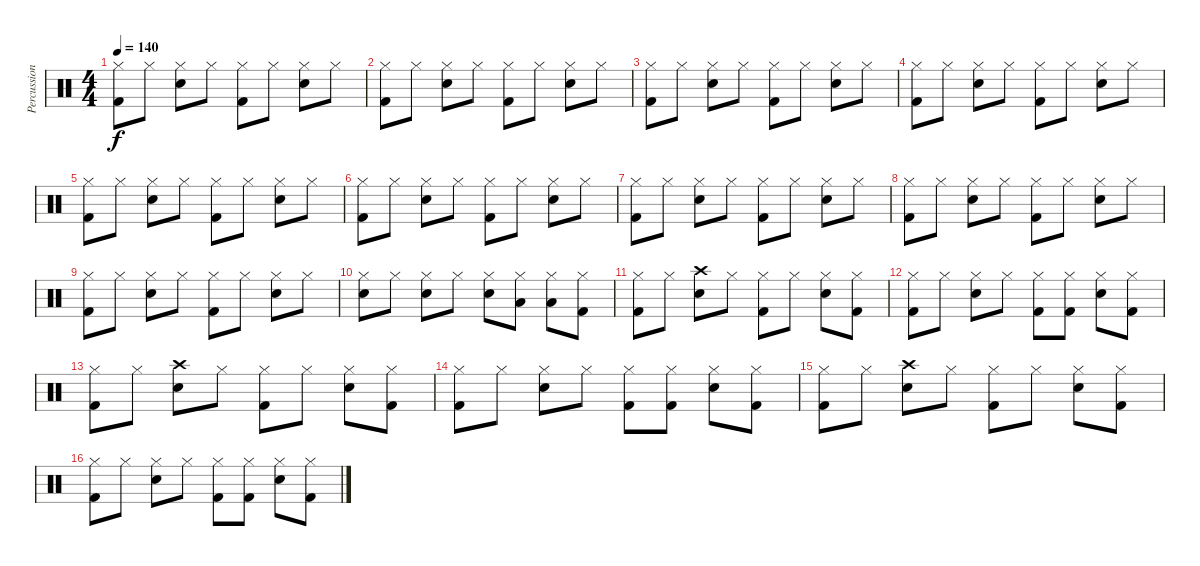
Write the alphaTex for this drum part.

\track ("Percussion" "Percussion") {instrument percussion}
\staff {score}
\articulation defaults
\ts (4 4)
\tempo 140
\clef neutral
\ks c
("Hi-Hat (closed)" "Kick (hit) 2").8{dy f} "Hi-Hat (closed)".8 ("Hi-Hat (closed)" "Snare (hit) 2").8 "Hi-Hat (closed)".8 ("Hi-Hat (closed)" "Kick (hit) 2").8 "Hi-Hat (closed)".8 ("Hi-Hat (closed)" "Snare (hit) 2").8 "Hi-Hat (closed)".8 |
("Hi-Hat (closed)" "Kick (hit) 2").8 "Hi-Hat (closed)".8 ("Hi-Hat (closed)" "Snare (hit) 2").8 "Hi-Hat (closed)".8 ("Hi-Hat (closed)" "Kick (hit) 2").8 "Hi-Hat (closed)".8 ("Hi-Hat (closed)" "Snare (hit) 2").8 "Hi-Hat (closed)".8 |
("Hi-Hat (closed)" "Kick (hit) 2").8 "Hi-Hat (closed)".8 ("Hi-Hat (closed)" "Snare (hit) 2").8 "Hi-Hat (closed)".8 ("Hi-Hat (closed)" "Kick (hit) 2").8 "Hi-Hat (closed)".8 ("Hi-Hat (closed)" "Snare (hit) 2").8 "Hi-Hat (closed)".8 |
("Hi-Hat (closed)" "Kick (hit) 2").8 "Hi-Hat (closed)".8 ("Hi-Hat (closed)" "Snare (hit) 2").8 "Hi-Hat (closed)".8 ("Hi-Hat (closed)" "Kick (hit) 2").8 "Hi-Hat (closed)".8 ("Hi-Hat (closed)" "Snare (hit) 2").8 "Hi-Hat (closed)".8 |
("Hi-Hat (closed)" "Kick (hit) 2").8 "Hi-Hat (closed)".8 ("Hi-Hat (closed)" "Snare (hit) 2").8 "Hi-Hat (closed)".8 ("Hi-Hat (closed)" "Kick (hit) 2").8 "Hi-Hat (closed)".8 ("Hi-Hat (closed)" "Snare (hit) 2").8 "Hi-Hat (closed)".8 |
("Hi-Hat (closed)" "Kick (hit) 2").8 "Hi-Hat (closed)".8 ("Hi-Hat (closed)" "Snare (hit) 2").8 "Hi-Hat (closed)".8 ("Hi-Hat (closed)" "Kick (hit) 2").8 "Hi-Hat (closed)".8 ("Hi-Hat (closed)" "Snare (hit) 2").8 "Hi-Hat (closed)".8 |
("Hi-Hat (closed)" "Kick (hit) 2").8 "Hi-Hat (closed)".8 ("Hi-Hat (closed)" "Snare (hit) 2").8 "Hi-Hat (closed)".8 ("Hi-Hat (closed)" "Kick (hit) 2").8 "Hi-Hat (closed)".8 ("Hi-Hat (closed)" "Snare (hit) 2").8 "Hi-Hat (closed)".8 |
("Hi-Hat (closed)" "Kick (hit) 2").8 "Hi-Hat (closed)".8 ("Hi-Hat (closed)" "Snare (hit) 2").8 "Hi-Hat (closed)".8 ("Hi-Hat (closed)" "Kick (hit) 2").8 "Hi-Hat (closed)".8 ("Hi-Hat (closed)" "Snare (hit) 2").8 "Hi-Hat (closed)".8 |
("Hi-Hat (closed)" "Kick (hit) 2").8 "Hi-Hat (closed)".8 ("Hi-Hat (closed)" "Snare (hit) 2").8 "Hi-Hat (closed)".8 ("Hi-Hat (closed)" "Kick (hit) 2").8 "Hi-Hat (closed)".8 ("Hi-Hat (closed)" "Snare (hit) 2").8 "Hi-Hat (closed)".8 |
("Hi-Hat (closed)" "Snare (hit) 2").8 "Hi-Hat (closed)".8 ("Hi-Hat (closed)" "Snare (hit) 2").8 "Hi-Hat (closed)".8 ("Hi-Hat (closed)" "Snare (hit) 2").8 ("Hi-Hat (closed)" "Low Tom (hit)").8 ("Hi-Hat (closed)" "Low Tom (hit)").8 ("Hi-Hat (closed)" "Kick (hit) 2").8 |
("Hi-Hat (closed)" "Kick (hit) 2").8 "Hi-Hat (closed)".8 ("Crash high (hit)" "Snare (hit) 2").8 "Hi-Hat (closed)".8 ("Hi-Hat (closed)" "Kick (hit) 2").8 "Hi-Hat (closed)".8 ("Hi-Hat (closed)" "Snare (hit) 2").8 ("Hi-Hat (closed)" "Kick (hit) 2").8 |
("Hi-Hat (closed)" "Kick (hit) 2").8 "Hi-Hat (closed)".8 ("Hi-Hat (closed)" "Snare (hit) 2").8 "Hi-Hat (closed)".8 ("Hi-Hat (closed)" "Kick (hit) 2").8 ("Hi-Hat (closed)" "Kick (hit) 2").8 ("Hi-Hat (closed)" "Snare (hit) 2").8 ("Hi-Hat (closed)" "Kick (hit) 2").8 |
("Hi-Hat (closed)" "Kick (hit) 2").8 "Hi-Hat (closed)".8 ("Crash high (hit)" "Snare (hit) 2").8 "Hi-Hat (closed)".8 ("Hi-Hat (closed)" "Kick (hit) 2").8 "Hi-Hat (closed)".8 ("Hi-Hat (closed)" "Snare (hit) 2").8 ("Hi-Hat (closed)" "Kick (hit) 2").8 |
("Hi-Hat (closed)" "Kick (hit) 2").8 "Hi-Hat (closed)".8 ("Hi-Hat (closed)" "Snare (hit) 2").8 "Hi-Hat (closed)".8 ("Hi-Hat (closed)" "Kick (hit) 2").8 ("Hi-Hat (closed)" "Kick (hit) 2").8 ("Hi-Hat (closed)" "Snare (hit) 2").8 ("Hi-Hat (closed)" "Kick (hit) 2").8 |
("Hi-Hat (closed)" "Kick (hit) 2").8 "Hi-Hat (closed)".8 ("Crash high (hit)" "Snare (hit) 2").8 "Hi-Hat (closed)".8 ("Hi-Hat (closed)" "Kick (hit) 2").8 "Hi-Hat (closed)".8 ("Hi-Hat (closed)" "Snare (hit) 2").8 ("Hi-Hat (closed)" "Kick (hit) 2").8 |
("Hi-Hat (closed)" "Kick (hit) 2").8 "Hi-Hat (closed)".8 ("Hi-Hat (closed)" "Snare (hit) 2").8 "Hi-Hat (closed)".8 ("Hi-Hat (closed)" "Kick (hit) 2").8 ("Hi-Hat (closed)" "Kick (hit) 2").8 ("Hi-Hat (closed)" "Snare (hit) 2").8 ("Hi-Hat (closed)" "Kick (hit) 2").8
